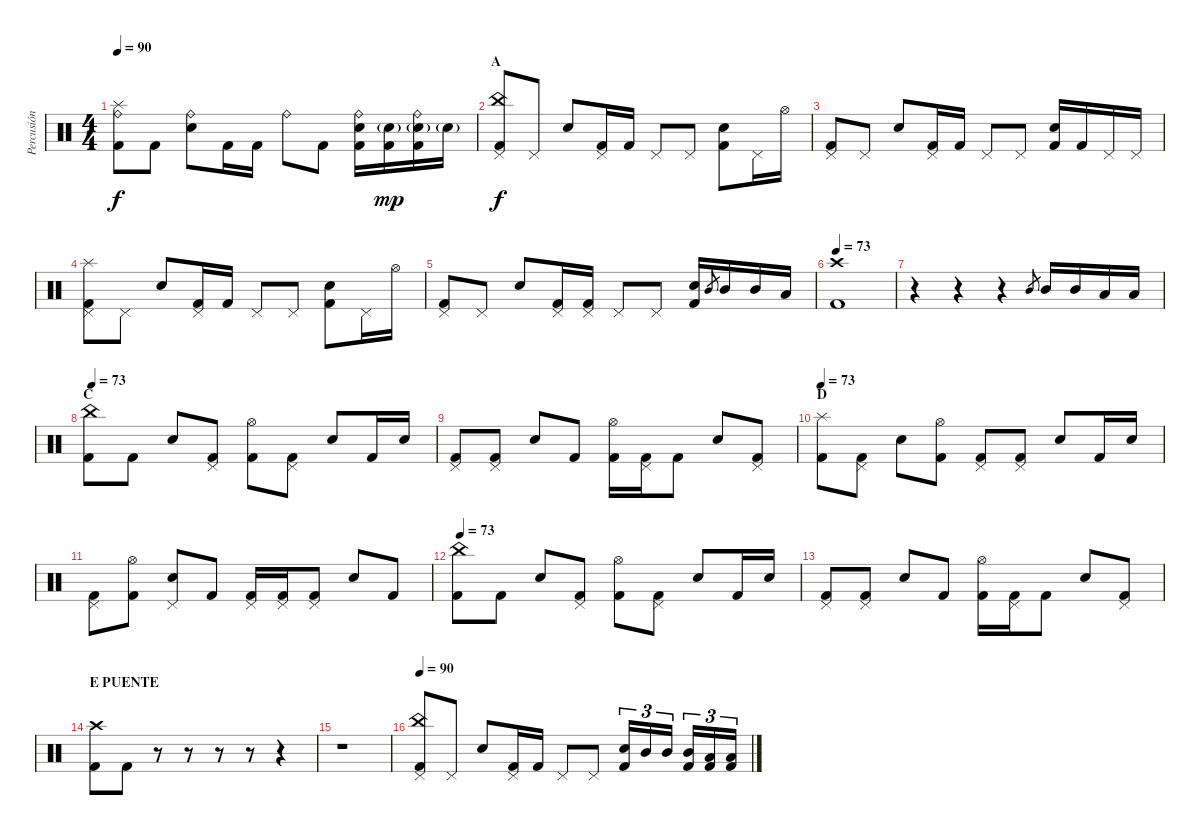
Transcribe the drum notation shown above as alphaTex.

\track ("Percusión" "Percusión") {instrument percussion}
\staff {score}
\articulation defaults
\ts (4 4)
\tempo 90
\clef neutral
\ks c
("Splash (hit)" "Ride (bell)" "Kick (hit) 2").8{dy f} "Kick (hit) 2".8 ("Ride (bell)" "Electric Snare (hit)").8 "Kick (hit) 2".16 "Kick (hit) 2".16 "Ride (bell)".8 "Kick (hit) 2".8 ("Ride (bell)" "Electric Snare (hit)" "Kick (hit) 2").16 ("Electric Snare (hit)"{g} "Kick (hit) 2").16{dy mp} ("Ride (bell)" "Electric Snare (hit)"{g} "Kick (hit) 2").16 "Electric Snare (hit)"{g}.16 |
\section ("" "A")
("China (hit)" "Pedal Hi-Hat (hit)" "Kick (hit) 2").8{dy f} "Pedal Hi-Hat (hit)".8 "Electric Snare (hit)".8 ("Pedal Hi-Hat (hit)" "Kick (hit) 2").16 "Kick (hit) 2".16 "Pedal Hi-Hat (hit)".8 "Pedal Hi-Hat (hit)".8 ("Electric Snare (hit)" "Kick (hit) 2").8 "Pedal Hi-Hat (hit)".16 "Hi-Hat (open)".16 |
("Pedal Hi-Hat (hit)" "Kick (hit) 2").8 "Pedal Hi-Hat (hit)".8 "Electric Snare (hit)".8 ("Pedal Hi-Hat (hit)" "Kick (hit) 2").16 "Kick (hit) 2".16 "Pedal Hi-Hat (hit)".8 "Pedal Hi-Hat (hit)".8 ("Electric Snare (hit)" "Kick (hit) 2").16 "Kick (hit) 2".16 "Pedal Hi-Hat (hit)".16 "Pedal Hi-Hat (hit)".16 |
("Splash (hit)" "Pedal Hi-Hat (hit)" "Kick (hit) 2").8 "Pedal Hi-Hat (hit)".8 "Electric Snare (hit)".8 ("Pedal Hi-Hat (hit)" "Kick (hit) 2").16 "Kick (hit) 2".16 "Pedal Hi-Hat (hit)".8 "Pedal Hi-Hat (hit)".8 ("Electric Snare (hit)" "Kick (hit) 2").8 "Pedal Hi-Hat (hit)".16 "Hi-Hat (open)".16 |
("Pedal Hi-Hat (hit)" "Kick (hit) 2").8 "Pedal Hi-Hat (hit)".8 "Electric Snare (hit)".8 ("Pedal Hi-Hat (hit)" "Kick (hit) 2").16 ("Pedal Hi-Hat (hit)" "Kick (hit) 2").16 "Pedal Hi-Hat (hit)".8 "Pedal Hi-Hat (hit)".8 ("Electric Snare (hit)" "Kick (hit) 2").16 "Mid Tom (hit)".8{gr} "Mid Tom (hit)".16 "Mid Tom (hit)".16 "Low Tom (hit)".16 |
\tempo 73
("Crash high (hit)" "Kick (hit) 2").1 |
r.4 r.4 r.4 "Mid Tom (hit)".8{gr} "Mid Tom (hit)".16 "Mid Tom (hit)".16 "Low Tom (hit)".16 "Low Tom (hit)".16 |
\section ("" "C")
\tempo 73
("China (hit)" "Kick (hit) 2").8 "Kick (hit) 2".8 "Electric Snare (hit)".8 ("Pedal Hi-Hat (hit)" "Kick (hit) 2").8 ("Hi-Hat (open)" "Kick (hit) 2").8 ("Pedal Hi-Hat (hit)" "Kick (hit) 2").8 "Electric Snare (hit)".8 "Kick (hit) 2".16 "Electric Snare (hit)".16 |
("Pedal Hi-Hat (hit)" "Kick (hit) 2").8 ("Pedal Hi-Hat (hit)" "Kick (hit) 2").8 "Electric Snare (hit)".8 "Kick (hit) 2".8 ("Hi-Hat (open)" "Kick (hit) 2").16 ("Pedal Hi-Hat (hit)" "Kick (hit) 2").16 "Kick (hit) 2".8 "Electric Snare (hit)".8 ("Pedal Hi-Hat (hit)" "Kick (hit) 2").8 |
\section ("" "D")
\tempo 73
("Splash (hit)" "Kick (hit) 2").8 ("Pedal Hi-Hat (hit)" "Kick (hit) 2").8 "Electric Snare (hit)".8 ("Hi-Hat (open)" "Kick (hit) 2").8 ("Pedal Hi-Hat (hit)" "Kick (hit) 2").8 ("Pedal Hi-Hat (hit)" "Kick (hit) 2").8 "Electric Snare (hit)".8 "Kick (hit) 2".16 "Electric Snare (hit)".16 |
("Pedal Hi-Hat (hit)" "Kick (hit) 2").8 ("Hi-Hat (open)" "Kick (hit) 2").8 ("Pedal Hi-Hat (hit)" "Electric Snare (hit)").8 "Kick (hit) 2".8 ("Pedal Hi-Hat (hit)" "Kick (hit) 2").16 ("Pedal Hi-Hat (hit)" "Kick (hit) 2").16 ("Pedal Hi-Hat (hit)" "Kick (hit) 2").8 "Electric Snare (hit)".8 "Kick (hit) 2".8 |
\tempo 73
("China (hit)" "Kick (hit) 2").8 "Kick (hit) 2".8 "Electric Snare (hit)".8 ("Pedal Hi-Hat (hit)" "Kick (hit) 2").8 ("Hi-Hat (open)" "Kick (hit) 2").8 ("Pedal Hi-Hat (hit)" "Kick (hit) 2").8 "Electric Snare (hit)".8 "Kick (hit) 2".16 "Electric Snare (hit)".16 |
("Pedal Hi-Hat (hit)" "Kick (hit) 2").8 ("Pedal Hi-Hat (hit)" "Kick (hit) 2").8 "Electric Snare (hit)".8 "Kick (hit) 2".8 ("Hi-Hat (open)" "Kick (hit) 2").16 ("Pedal Hi-Hat (hit)" "Kick (hit) 2").16 "Kick (hit) 2".8 "Electric Snare (hit)".8 ("Pedal Hi-Hat (hit)" "Kick (hit) 2").8 |
\section ("" "E PUENTE")
("Crash high (hit)" "Kick (hit) 2").8 "Kick (hit) 2".8 r.8 r.8 r.8 r.8 r.4 |
r.1 |
\tempo 90
("China (hit)" "Pedal Hi-Hat (hit)" "Kick (hit) 2").8 "Pedal Hi-Hat (hit)".8 "Electric Snare (hit)".8 ("Pedal Hi-Hat (hit)" "Kick (hit) 2").16 "Kick (hit) 2".16 "Pedal Hi-Hat (hit)".8 "Pedal Hi-Hat (hit)".8 ("Electric Snare (hit)" "Kick (hit) 2").16{tu (3 2)} "Mid Tom (hit)".16{tu (3 2)} "Mid Tom (hit)".16{tu (3 2)} ("Mid Tom (hit)" "Kick (hit) 2").16{tu (3 2)} ("Low Tom (hit)" "Kick (hit) 2").16{tu (3 2)} ("Low Tom (hit)" "Kick (hit) 2").16{tu (3 2)}
